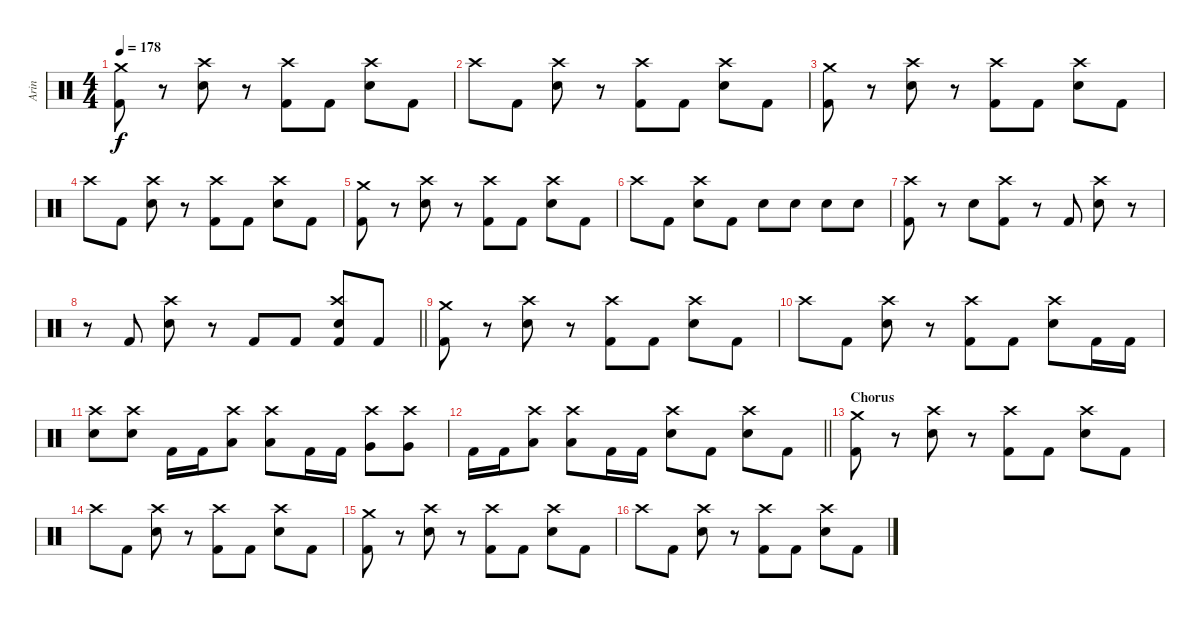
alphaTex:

\track ("Arin" "Arin") {instrument percussion}
\staff {score}
\articulation defaults
\ts (4 4)
\tempo 178
\clef neutral
\ks c
("Crash medium (hit)" "Kick (hit) 2").8{dy f} r.8 ("Crash high (hit)" "Snare (hit) 2").8 r.8 ("Crash high (hit)" "Kick (hit) 2").8 "Kick (hit) 2".8 ("Crash high (hit)" "Snare (hit) 2").8 "Kick (hit) 2".8 |
"Crash high (hit)".8 "Kick (hit) 2".8 ("Crash high (hit)" "Snare (hit) 2").8 r.8 ("Crash high (hit)" "Kick (hit) 2").8 "Kick (hit) 2".8 ("Crash high (hit)" "Snare (hit) 2").8 "Kick (hit) 2".8 |
("Crash medium (hit)" "Kick (hit) 2").8 r.8 ("Crash high (hit)" "Snare (hit) 2").8 r.8 ("Crash high (hit)" "Kick (hit) 2").8 "Kick (hit) 2".8 ("Crash high (hit)" "Snare (hit) 2").8 "Kick (hit) 2".8 |
"Crash high (hit)".8 "Kick (hit) 2".8 ("Crash high (hit)" "Snare (hit) 2").8 r.8 ("Crash high (hit)" "Kick (hit) 2").8 "Kick (hit) 2".8 ("Crash high (hit)" "Snare (hit) 2").8 "Kick (hit) 2".8 |
("Crash medium (hit)" "Kick (hit) 2").8 r.8 ("Crash high (hit)" "Snare (hit) 2").8 r.8 ("Crash high (hit)" "Kick (hit) 2").8 "Kick (hit) 2".8 ("Crash high (hit)" "Snare (hit) 2").8 "Kick (hit) 2".8 |
"Crash high (hit)".8 "Kick (hit) 2".8 ("Crash high (hit)" "Snare (hit) 2").8 "Kick (hit) 2".8 "Snare (hit) 2".8 "Snare (hit) 2".8 "Snare (hit) 2".8 "Snare (hit) 2".8 |
("Crash high (hit)" "Kick (hit) 2").8 r.8 "Snare (hit) 2".8 ("Crash high (hit)" "Kick (hit) 2").8 r.8 "Kick (hit) 2".8 ("Crash high (hit)" "Snare (hit) 2").8 r.8 |
\barLineRight lightlight
r.8 "Kick (hit) 2".8 ("Crash high (hit)" "Snare (hit) 2").8 r.8 "Kick (hit) 2".8 "Kick (hit) 2".8 ("Crash high (hit)" "Snare (hit) 2" "Kick (hit) 2").8 "Kick (hit) 2".8 |
("Crash medium (hit)" "Kick (hit) 2").8 r.8 ("Crash high (hit)" "Snare (hit) 2").8 r.8 ("Crash high (hit)" "Kick (hit) 2").8 "Kick (hit) 2".8 ("Crash high (hit)" "Snare (hit) 2").8 "Kick (hit) 2".8 |
"Crash high (hit)".8 "Kick (hit) 2".8 ("Crash high (hit)" "Snare (hit) 2").8 r.8 ("Crash high (hit)" "Kick (hit) 2").8 "Kick (hit) 2".8 ("Crash high (hit)" "Snare (hit) 2").8 "Kick (hit) 2".16 "Kick (hit) 2".16 |
("Crash high (hit)" "Snare (hit) 2").8 ("Crash high (hit)" "Snare (hit) 2").8 "Kick (hit) 2".16 "Kick (hit) 2".16 ("Crash high (hit)" "Low Tom (hit)").8 ("Crash high (hit)" "Low Tom (hit)").8 "Kick (hit) 2".16 "Kick (hit) 2".16 ("Crash high (hit)" "Very Low Tom (hit)").8 ("Crash high (hit)" "Very Low Tom (hit)").8 |
\barLineRight lightlight "Kick (hit) 2".16 "Kick (hit) 2".16
("Crash high (hit)" "Low Floor Tom (hit)").8 ("Crash high (hit)" "Low Floor Tom (hit)").8 "Kick (hit) 2".16 "Kick (hit) 2".16 ("Crash high (hit)" "Snare (hit) 2").8 "Kick (hit) 2".8 ("Crash high (hit)" "Snare (hit) 2").8 "Kick (hit) 2".8 |
\section ("" "Chorus")
("Crash medium (hit)" "Kick (hit) 2").8 r.8 ("Crash high (hit)" "Snare (hit) 2").8 r.8 ("Crash high (hit)" "Kick (hit) 2").8 "Kick (hit) 2".8 ("Crash high (hit)" "Snare (hit) 2").8 "Kick (hit) 2".8 |
"Crash high (hit)".8 "Kick (hit) 2".8 ("Crash high (hit)" "Snare (hit) 2").8 r.8 ("Crash high (hit)" "Kick (hit) 2").8 "Kick (hit) 2".8 ("Crash high (hit)" "Snare (hit) 2").8 "Kick (hit) 2".8 |
("Crash medium (hit)" "Kick (hit) 2").8 r.8 ("Crash high (hit)" "Snare (hit) 2").8 r.8 ("Crash high (hit)" "Kick (hit) 2").8 "Kick (hit) 2".8 ("Crash high (hit)" "Snare (hit) 2").8 "Kick (hit) 2".8 |
"Crash high (hit)".8 "Kick (hit) 2".8 ("Crash high (hit)" "Snare (hit) 2").8 r.8 ("Crash high (hit)" "Kick (hit) 2").8 "Kick (hit) 2".8 ("Crash high (hit)" "Snare (hit) 2").8 "Kick (hit) 2".8
